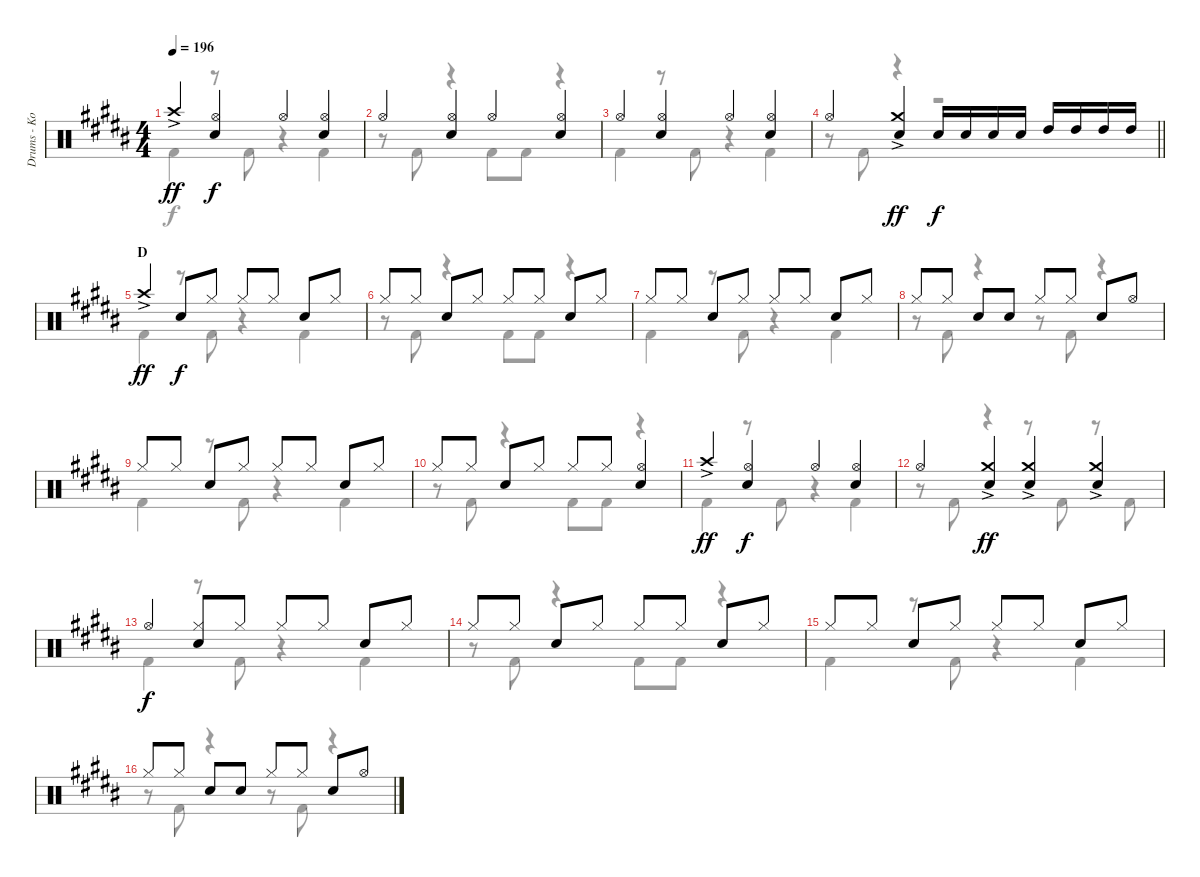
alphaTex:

\track ("Drums - Koji Hasegawa" "Drums - Ko") {instrument percussion}
\staff {score}
\articulation defaults
\voice
\ts (4 4)
\tempo 196
\clef neutral
\ks b "Crash high (hit)"{ac}.4{dy ff}
("Hi-Hat (open)" "Snare (hit) 2").4{dy f} "Hi-Hat (open)".4 ("Hi-Hat (open)" "Snare (hit) 2").4 |
"Hi-Hat (open)".4 ("Hi-Hat (open)" "Snare (hit) 2").4 "Hi-Hat (open)".4 ("Hi-Hat (open)" "Snare (hit) 2").4 |
"Hi-Hat (open)".4 ("Hi-Hat (open)" "Snare (hit) 2").4 "Hi-Hat (open)".4 ("Hi-Hat (open)" "Snare (hit) 2").4 |
\barLineRight lightlight "Hi-Hat (open)".4
("Crash medium (hit)"{ac} "Snare (hit) 2").4{dy ff} "Snare (hit) 2".16{dy f} "Snare (hit) 2".16 "Snare (hit) 2".16 "Snare (hit) 2".16 "High Tom (hit)".16 "High Tom (hit)".16 "High Tom (hit)".16 "High Tom (hit)".16 |
\section ("" "D")
"Crash high (hit)"{ac}.4{dy ff} "Snare (hit) 2".8{dy f} "Hi-Hat (closed)".8 "Hi-Hat (closed)".8 "Hi-Hat (closed)".8 "Snare (hit) 2".8 "Hi-Hat (closed)".8 |
"Hi-Hat (closed)".8 "Hi-Hat (closed)".8 "Snare (hit) 2".8 "Hi-Hat (closed)".8 "Hi-Hat (closed)".8 "Hi-Hat (closed)".8 "Snare (hit) 2".8 "Hi-Hat (closed)".8 |
"Hi-Hat (closed)".8 "Hi-Hat (closed)".8 "Snare (hit) 2".8 "Hi-Hat (closed)".8 "Hi-Hat (closed)".8 "Hi-Hat (closed)".8 "Snare (hit) 2".8 "Hi-Hat (closed)".8 |
"Hi-Hat (closed)".8 "Hi-Hat (closed)".8 "Snare (hit) 2".8 "Snare (hit) 2".8 "Hi-Hat (closed)".8 "Hi-Hat (closed)".8 "Snare (hit) 2".8 "Hi-Hat (open)".8 |
"Hi-Hat (closed)".8 "Hi-Hat (closed)".8 "Snare (hit) 2".8 "Hi-Hat (closed)".8 "Hi-Hat (closed)".8 "Hi-Hat (closed)".8 "Snare (hit) 2".8 "Hi-Hat (closed)".8 |
"Hi-Hat (closed)".8 "Hi-Hat (closed)".8 "Snare (hit) 2".8 "Hi-Hat (closed)".8 "Hi-Hat (closed)".8 "Hi-Hat (closed)".8 ("Hi-Hat (open)" "Snare (hit) 2").4 |
"Crash high (hit)"{ac}.4{dy ff} ("Hi-Hat (open)" "Snare (hit) 2").4{dy f} "Hi-Hat (open)".4 ("Hi-Hat (open)" "Snare (hit) 2").4 |
"Hi-Hat (open)".4 ("Crash medium (hit)"{ac} "Snare (hit) 2").4{dy ff} ("Crash medium (hit)"{ac} "Snare (hit) 2").4 ("Crash medium (hit)"{ac} "Snare (hit) 2").4 |
"Hi-Hat (open)".4{dy f} ("Hi-Hat (closed)" "Snare (hit) 2").8 "Hi-Hat (closed)".8 "Hi-Hat (closed)".8 "Hi-Hat (closed)".8 "Snare (hit) 2".8 "Hi-Hat (closed)".8 |
"Hi-Hat (closed)".8 "Hi-Hat (closed)".8 "Snare (hit) 2".8 "Hi-Hat (closed)".8 "Hi-Hat (closed)".8 "Hi-Hat (closed)".8 "Snare (hit) 2".8 "Hi-Hat (closed)".8 |
"Hi-Hat (closed)".8 "Hi-Hat (closed)".8 "Snare (hit) 2".8 "Hi-Hat (closed)".8 "Hi-Hat (closed)".8 "Hi-Hat (closed)".8 "Snare (hit) 2".8 "Hi-Hat (closed)".8 |
"Hi-Hat (closed)".8 "Hi-Hat (closed)".8 "Snare (hit) 2".8 "Snare (hit) 2".8 "Hi-Hat (closed)".8 "Hi-Hat (closed)".8 "Snare (hit) 2".8 "Hi-Hat (open)".8
\voice
\clef neutral
\ottava regular
\simile none
\ks b "Kick (hit) 2".4{dy f}
r.8 "Kick (hit) 2".8 r.4 "Kick (hit) 2".4 |
r.8 "Kick (hit) 2".8 r.4 "Kick (hit) 2".8 "Kick (hit) 2".8 r.4 |
"Kick (hit) 2".4 r.8 "Kick (hit) 2".8 r.4 "Kick (hit) 2".4 |
\barLineRight lightlight
r.8 "Kick (hit) 2".8 r.4 r.2 |
"Kick (hit) 2".4 r.8 "Kick (hit) 2".8 r.4 "Kick (hit) 2".4 |
r.8 "Kick (hit) 2".8 r.4 "Kick (hit) 2".8 "Kick (hit) 2".8 r.4 |
"Kick (hit) 2".4 r.8 "Kick (hit) 2".8 r.4 "Kick (hit) 2".4 |
r.8 "Kick (hit) 2".8 r.4 r.8 "Kick (hit) 2".8 r.4 |
"Kick (hit) 2".4 r.8 "Kick (hit) 2".8 r.4 "Kick (hit) 2".4 |
r.8 "Kick (hit) 2".8 r.4 "Kick (hit) 2".8 "Kick (hit) 2".8 r.4 |
"Kick (hit) 2".4 r.8 "Kick (hit) 2".8 r.4 "Kick (hit) 2".4 |
r.8 "Kick (hit) 2".8 r.4 r.8 "Kick (hit) 2".8 r.8 "Kick (hit) 2".8 |
"Kick (hit) 2".4 r.8 "Kick (hit) 2".8 r.4 "Kick (hit) 2".4 |
r.8 "Kick (hit) 2".8 r.4 "Kick (hit) 2".8 "Kick (hit) 2".8 r.4 |
"Kick (hit) 2".4 r.8 "Kick (hit) 2".8 r.4 "Kick (hit) 2".4 |
r.8 "Kick (hit) 2".8 r.4 r.8 "Kick (hit) 2".8 r.4
